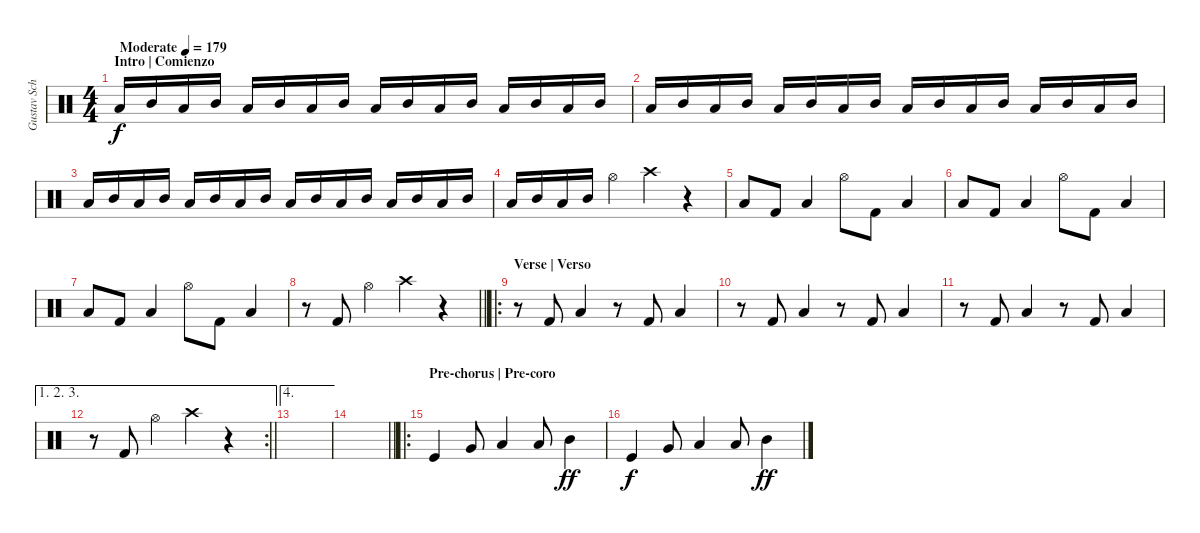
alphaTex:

\track ("Gustav Schäfer" "Gustav Sch") {instrument percussion}
\staff {score}
\articulation defaults
\ts (4 4)
\section ("" "Intro | Comienzo")
\tempo (179 "Moderate")
\clef neutral
\ks c "Low Tom (hit)".16{dy f} "Mid Tom (hit)".16 "Low Tom (hit)".16 "Mid Tom (hit)".16 "Low Tom (hit)".16 "Mid Tom (hit)".16 "Low Tom (hit)".16 "Mid Tom (hit)".16 "Low Tom (hit)".16 "Mid Tom (hit)".16 "Low Tom (hit)".16 "Mid Tom (hit)".16 "Low Tom (hit)".16 "Mid Tom (hit)".16 "Low Tom (hit)".16 "Mid Tom (hit)".16
|
"Low Tom (hit)".16 "Mid Tom (hit)".16 "Low Tom (hit)".16 "Mid Tom (hit)".16 "Low Tom (hit)".16 "Mid Tom (hit)".16 "Low Tom (hit)".16 "Mid Tom (hit)".16 "Low Tom (hit)".16 "Mid Tom (hit)".16 "Low Tom (hit)".16 "Mid Tom (hit)".16 "Low Tom (hit)".16 "Mid Tom (hit)".16 "Low Tom (hit)".16 "Mid Tom (hit)".16 |
"Low Tom (hit)".16 "Mid Tom (hit)".16 "Low Tom (hit)".16 "Mid Tom (hit)".16 "Low Tom (hit)".16 "Mid Tom (hit)".16 "Low Tom (hit)".16 "Mid Tom (hit)".16 "Low Tom (hit)".16 "Mid Tom (hit)".16 "Low Tom (hit)".16 "Mid Tom (hit)".16 "Low Tom (hit)".16 "Mid Tom (hit)".16 "Low Tom (hit)".16 "Mid Tom (hit)".16 |
"Low Tom (hit)".16 "Mid Tom (hit)".16 "Low Tom (hit)".16 "Mid Tom (hit)".16 "Hi-Hat (open)".4 "Crash high (hit)".4 r.4 |
"Low Floor Tom (hit)".8 "Kick (hit) 2".8 "Low Tom (hit)".4 "Hi-Hat (open)".8 "Kick (hit) 2".8 "Low Tom (hit)".4 |
"Low Floor Tom (hit)".8 "Kick (hit) 2".8 "Low Tom (hit)".4 "Hi-Hat (open)".8 "Kick (hit) 2".8 "Low Tom (hit)".4 |
"Low Floor Tom (hit)".8 "Kick (hit) 2".8 "Low Tom (hit)".4 "Hi-Hat (open)".8 "Kick (hit) 2".8 "Low Tom (hit)".4 |
\barLineRight lightlight
r.8 "Kick (hit) 2".8 "Hi-Hat (open)".4 "Crash high (hit)".4 r.4 |
\ro
\section ("" "Verse | Verso")
r.8 "Kick (hit) 2".8 "Low Tom (hit)".4 r.8 "Kick (hit) 2".8 "Low Tom (hit)".4 |
r.8 "Kick (hit) 2".8 "Low Tom (hit)".4 r.8 "Kick (hit) 2".8 "Low Tom (hit)".4 |
r.8 "Kick (hit) 2".8 "Low Tom (hit)".4 r.8 "Kick (hit) 2".8 "Low Tom (hit)".4 |
\ae (1 2 3)
\rc 2
\barLineRight lightlight
r.8 "Kick (hit) 2".8 "Hi-Hat (open)".4 "Crash high (hit)".4 r.4 |
\ae 4
|
\barLineRight lightlight
|
\ro
\section ("" "Pre-chorus | Pre-coro")
"Kick (hit)".4 "Very Low Tom (hit)".8 "Low Tom (hit)".4 "Low Tom (hit)".8 "Mid Tom (hit)".4{dy ff} |
"Kick (hit)".4{dy f} "Very Low Tom (hit)".8 "Low Tom (hit)".4 "Low Tom (hit)".8 "Mid Tom (hit)".4{dy ff}
